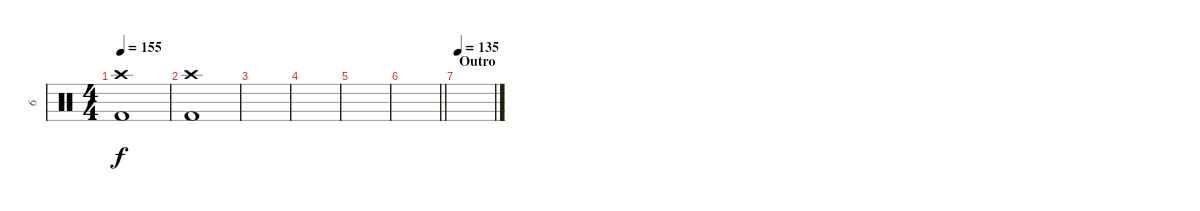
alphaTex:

\track ("6" "6") {instrument percussion}
\staff {score}
\articulation defaults
\ts (4 4)
\tempo 155
\clef neutral
\ks c
("Kick (hit) 2" "Crash high (hit)").1{dy f} |
("Kick (hit) 2" "Crash high (hit)").1 |
|
|
|
\barLineRight lightlight
|
\section ("" "Outro")
\tempo 135
